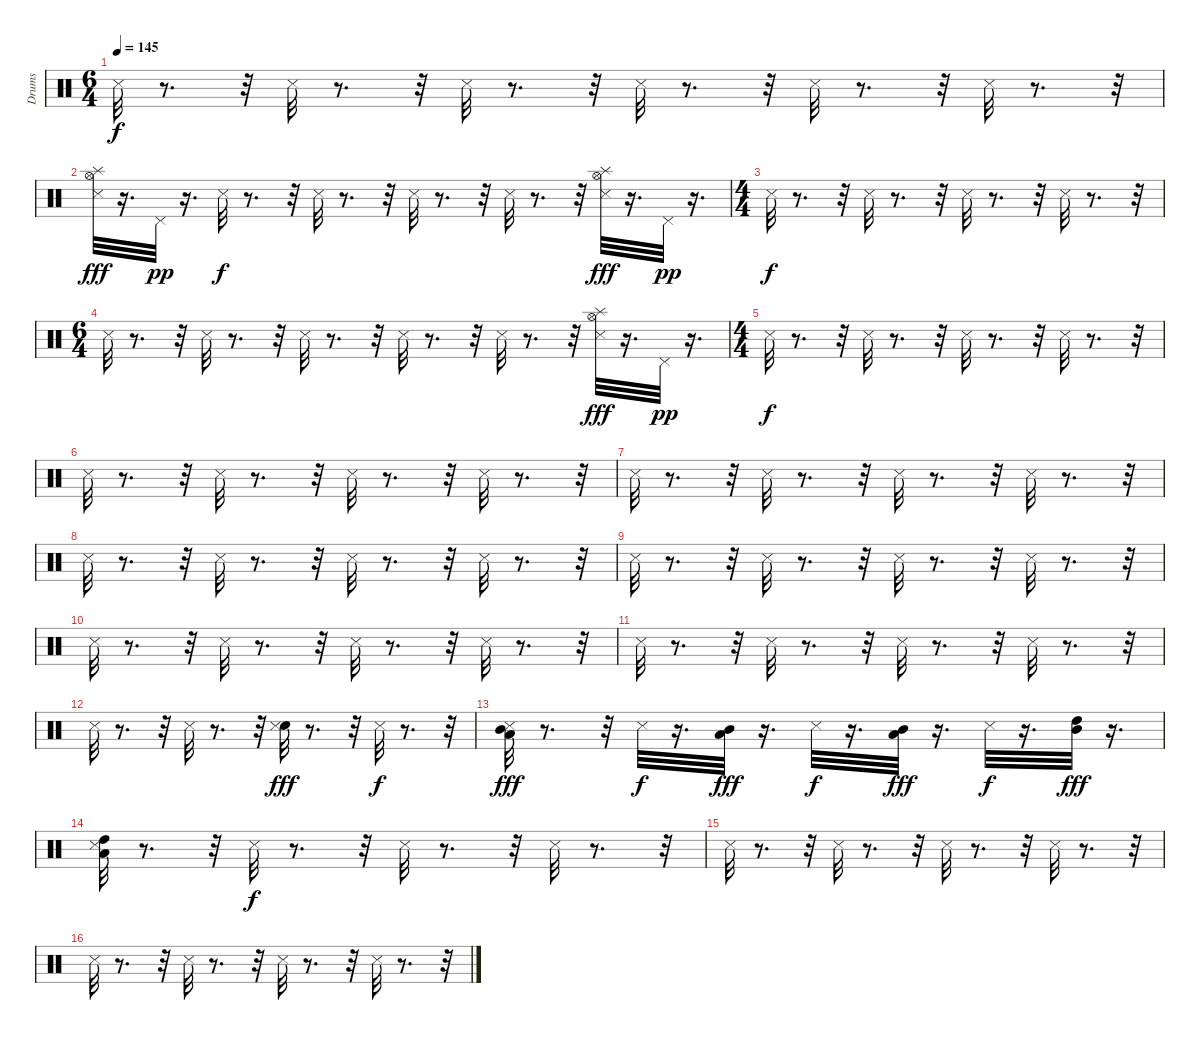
\track ("Drums" "Drums") {instrument percussion}
\staff {score}
\articulation defaults
\ts (6 4)
\tempo 145
\clef neutral
\ks c "Metronome (hit)".32{dy f}
r.8{d} r.32 "Metronome (hit)".32 r.8{d} r.32 "Metronome (hit)".32 r.8{d} r.32 "Metronome (hit)".32 r.8{d} r.32 "Metronome (hit)".32 r.8{d} r.32 "Metronome (hit)".32 r.8{d} r.32 |
("Metronome (hit)" "Hi-Hat (open)" "Splash (hit)").32{dy fff} r.16{d} "Pedal Hi-Hat (hit)".32{dy pp} r.16{d} "Metronome (hit)".32{dy f} r.8{d} r.32 "Metronome (hit)".32 r.8{d} r.32 "Metronome (hit)".32 r.8{d} r.32 "Metronome (hit)".32 r.8{d} r.32 ("Metronome (hit)" "Hi-Hat (open)" "Splash (hit)").32{dy fff} r.16{d} "Pedal Hi-Hat (hit)".32{dy pp} r.16{d} |
\ts (4 4)
"Metronome (hit)".32{dy f} r.8{d} r.32 "Metronome (hit)".32 r.8{d} r.32 "Metronome (hit)".32 r.8{d} r.32 "Metronome (hit)".32 r.8{d} r.32 |
\ts (6 4)
"Metronome (hit)".32 r.8{d} r.32 "Metronome (hit)".32 r.8{d} r.32 "Metronome (hit)".32 r.8{d} r.32 "Metronome (hit)".32 r.8{d} r.32 "Metronome (hit)".32 r.8{d} r.32 ("Metronome (hit)" "Hi-Hat (open)" "Splash (hit)").32{dy fff} r.16{d} "Pedal Hi-Hat (hit)".32{dy pp} r.16{d} |
\ts (4 4)
"Metronome (hit)".32{dy f} r.8{d} r.32 "Metronome (hit)".32 r.8{d} r.32 "Metronome (hit)".32 r.8{d} r.32 "Metronome (hit)".32 r.8{d} r.32 |
"Metronome (hit)".32 r.8{d} r.32 "Metronome (hit)".32 r.8{d} r.32 "Metronome (hit)".32 r.8{d} r.32 "Metronome (hit)".32 r.8{d} r.32 |
"Metronome (hit)".32 r.8{d} r.32 "Metronome (hit)".32 r.8{d} r.32 "Metronome (hit)".32 r.8{d} r.32 "Metronome (hit)".32 r.8{d} r.32 |
"Metronome (hit)".32 r.8{d} r.32 "Metronome (hit)".32 r.8{d} r.32 "Metronome (hit)".32 r.8{d} r.32 "Metronome (hit)".32 r.8{d} r.32 |
"Metronome (hit)".32 r.8{d} r.32 "Metronome (hit)".32 r.8{d} r.32 "Metronome (hit)".32 r.8{d} r.32 "Metronome (hit)".32 r.8{d} r.32 |
"Metronome (hit)".32 r.8{d} r.32 "Metronome (hit)".32 r.8{d} r.32 "Metronome (hit)".32 r.8{d} r.32 "Metronome (hit)".32 r.8{d} r.32 |
"Metronome (hit)".32 r.8{d} r.32 "Metronome (hit)".32 r.8{d} r.32 "Metronome (hit)".32 r.8{d} r.32 "Metronome (hit)".32 r.8{d} r.32 |
"Metronome (hit)".32 r.8{d} r.32 "Metronome (hit)".32 r.8{d} r.32 ("Snare (hit)" "Metronome (hit)").32{dy fff} r.8{d} r.32 "Metronome (hit)".32{dy f} r.8{d} r.32 |
("Low Tom (hit)" "Mid Tom (hit)" "Metronome (hit)").32{dy fff} r.8{d} r.32 "Metronome (hit)".32{dy f} r.16{d} ("Low Tom (hit)" "Mid Tom (hit)").32{dy fff} r.16{d} "Metronome (hit)".32{dy f} r.16{d} ("Low Tom (hit)" "Mid Tom (hit)").32{dy fff} r.16{d} "Metronome (hit)".32{dy f} r.16{d} ("Mid Tom (hit)" "High Tom (hit)").32{dy fff} r.16{d} |
("High Tom (hit)" "Low Tom (hit)" "Metronome (hit)").32 r.8{d} r.32 "Metronome (hit)".32{dy f} r.8{d} r.32 "Metronome (hit)".32 r.8{d} r.32 "Metronome (hit)".32 r.8{d} r.32 |
"Metronome (hit)".32 r.8{d} r.32 "Metronome (hit)".32 r.8{d} r.32 "Metronome (hit)".32 r.8{d} r.32 "Metronome (hit)".32 r.8{d} r.32 |
"Metronome (hit)".32 r.8{d} r.32 "Metronome (hit)".32 r.8{d} r.32 "Metronome (hit)".32 r.8{d} r.32 "Metronome (hit)".32 r.8{d} r.32
